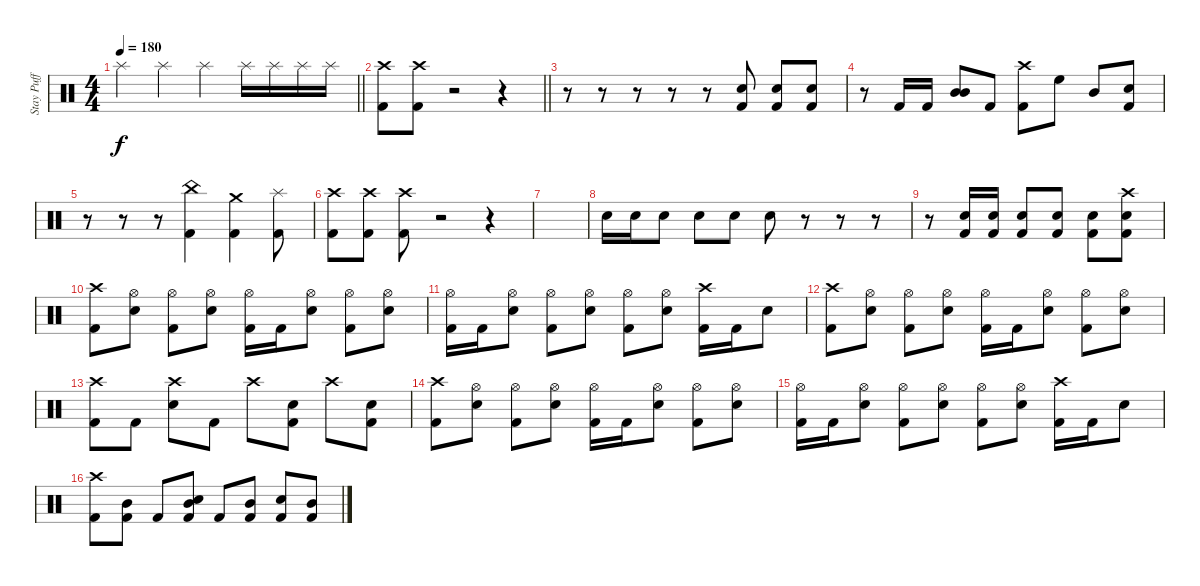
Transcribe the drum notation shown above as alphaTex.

\track ("Stay Puff" "Stay Puff") {instrument percussion}
\staff {score}
\articulation defaults
\ts (4 4)
\tempo 180
\clef neutral
\barLineRight lightlight
\ks c "Splash (hit)".4{dy f} "Splash (hit)".4 "Splash (hit)".4 "Splash (hit)".16 "Splash (hit)".16 "Splash (hit)".16 "Splash (hit)".16
|
\section ("" "")
\barLineRight lightlight
("Crash high (hit)" "Kick (hit) 2").8 ("Crash high (hit)" "Kick (hit) 2").8 r.2{volume 0} r.4 |
\section ("" "")
r.8 r.8 r.8 r.8 r.8 ("Snare (hit) 2" "Kick (hit) 2").8{volume 13} ("Snare (hit) 2" "Kick (hit) 2").8 ("Snare (hit) 2" "Kick (hit) 2").8 |
r.8 "Kick (hit) 2".16 "Kick (hit) 2".16 ("Mid Tom (hit)" "Mid Tom (hit)").8 "Kick (hit) 2".8 ("Crash high (hit)" "Kick (hit) 2").8 "High Floor Tom (hit)".8 "Mid Tom (hit)".8 ("Snare (hit) 2" "Kick (hit) 2").8 |
r.8 r.8 r.8 ("China (hit)" "Kick (hit) 2").4 ("Crash medium (hit)" "Kick (hit) 2").4 ("Splash (hit)" "Kick (hit) 2").8 |
("Crash high (hit)" "Kick (hit) 2").8 ("Crash high (hit)" "Kick (hit) 2").8 ("Crash high (hit)" "Kick (hit) 2").8 r.2{volume 0} r.4 |
|
"Snare (hit) 2".16{volume 13} "Snare (hit) 2".16 "Snare (hit) 2".8 "Snare (hit) 2".8 "Snare (hit) 2".8 "Snare (hit) 2".8 r.8 r.8 r.8 |
r.8 ("Snare (hit) 2" "Kick (hit) 2").16 ("Snare (hit) 2" "Kick (hit) 2").16 ("Snare (hit) 2" "Kick (hit) 2").8 ("Snare (hit) 2" "Kick (hit) 2").8 ("Snare (hit) 2" "Kick (hit) 2").8 ("Crash high (hit)" "Snare (hit) 2" "Kick (hit) 2").8 |
("Crash high (hit)" "Kick (hit) 2").8 ("Hi-Hat (open)" "Snare (hit) 2").8 ("Hi-Hat (open)" "Kick (hit) 2").8 ("Hi-Hat (open)" "Snare (hit) 2").8 ("Hi-Hat (open)" "Kick (hit) 2").16 "Kick (hit) 2".16 ("Hi-Hat (open)" "Snare (hit) 2").8 ("Hi-Hat (open)" "Kick (hit) 2").8 ("Hi-Hat (open)" "Snare (hit) 2").8 |
("Hi-Hat (open)" "Kick (hit) 2").16 "Kick (hit) 2".16 ("Hi-Hat (open)" "Snare (hit) 2").8 ("Hi-Hat (open)" "Kick (hit) 2").8 ("Hi-Hat (open)" "Snare (hit) 2").8 ("Hi-Hat (open)" "Kick (hit) 2").8 ("Hi-Hat (open)" "Snare (hit) 2").8 ("Crash high (hit)" "Kick (hit) 2").16 "Kick (hit) 2".16 "Snare (hit) 2".8 |
("Crash high (hit)" "Kick (hit) 2").8 ("Hi-Hat (open)" "Snare (hit) 2").8 ("Hi-Hat (open)" "Kick (hit) 2").8 ("Hi-Hat (open)" "Snare (hit) 2").8 ("Hi-Hat (open)" "Kick (hit) 2").16 "Kick (hit) 2".16 ("Hi-Hat (open)" "Snare (hit) 2").8 ("Hi-Hat (open)" "Kick (hit) 2").8 ("Hi-Hat (open)" "Snare (hit) 2").8 |
("Crash high (hit)" "Kick (hit) 2").8 "Kick (hit) 2".8 ("Crash high (hit)" "Snare (hit) 2").8 "Kick (hit) 2".8 "Crash high (hit)".8 ("Snare (hit) 2" "Kick (hit) 2").8 "Crash high (hit)".8 ("Snare (hit) 2" "Kick (hit) 2").8 |
("Crash high (hit)" "Kick (hit) 2").8 ("Hi-Hat (open)" "Snare (hit) 2").8 ("Hi-Hat (open)" "Kick (hit) 2").8 ("Hi-Hat (open)" "Snare (hit) 2").8 ("Hi-Hat (open)" "Kick (hit) 2").16 "Kick (hit) 2".16 ("Hi-Hat (open)" "Snare (hit) 2").8 ("Hi-Hat (open)" "Kick (hit) 2").8 ("Hi-Hat (open)" "Snare (hit) 2").8 |
("Hi-Hat (open)" "Kick (hit) 2").16 "Kick (hit) 2".16 ("Hi-Hat (open)" "Snare (hit) 2").8 ("Hi-Hat (open)" "Kick (hit) 2").8 ("Hi-Hat (open)" "Snare (hit) 2").8 ("Hi-Hat (open)" "Kick (hit) 2").8 ("Hi-Hat (open)" "Snare (hit) 2").8 ("Crash high (hit)" "Kick (hit) 2").16 "Kick (hit) 2".16 "Snare (hit) 2".8 |
("Crash high (hit)" "Kick (hit) 2").8 ("Mid Tom (hit)" "Kick (hit) 2").8 "Kick (hit) 2".8 ("Mid Tom (hit)" "Snare (hit) 2" "Kick (hit) 2").8 "Kick (hit) 2".8 ("Mid Tom (hit)" "Kick (hit) 2").8 ("Snare (hit) 2" "Kick (hit) 2").8 ("Mid Tom (hit)" "Kick (hit) 2").8
